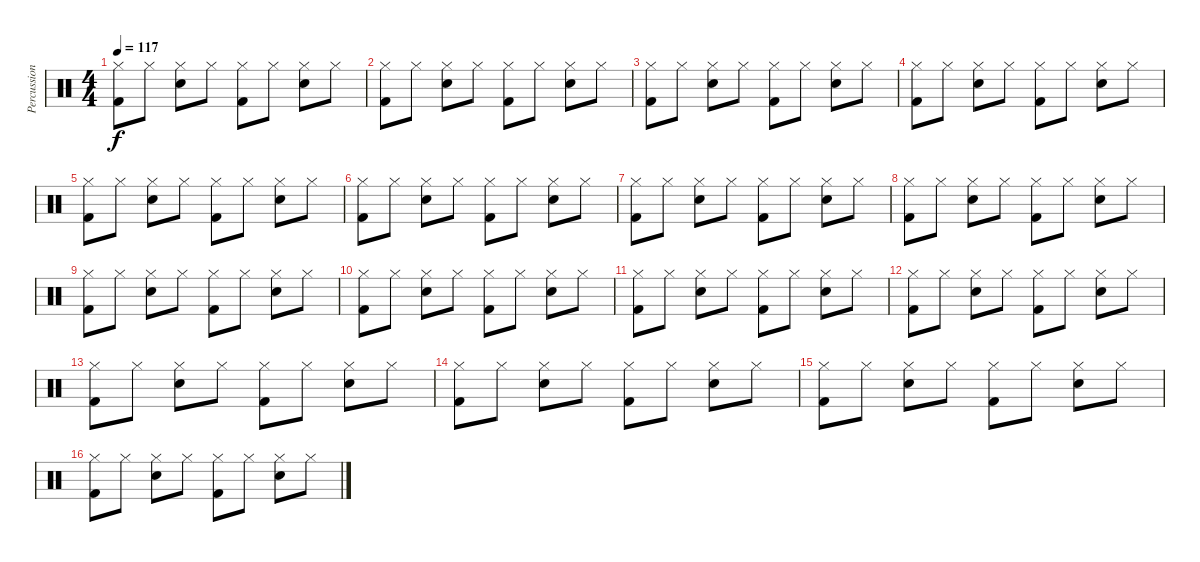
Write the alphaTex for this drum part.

\track ("Percussions" "Percussion") {instrument percussion}
\staff {score}
\articulation defaults
\ts (4 4)
\tempo 117
\clef neutral
\ks c
("Hi-Hat (closed)" "Kick (hit) 2").8{dy f} "Hi-Hat (closed)".8 ("Hi-Hat (closed)" "Electric Snare (hit)").8 "Hi-Hat (closed)".8 ("Hi-Hat (closed)" "Kick (hit) 2").8 "Hi-Hat (closed)".8 ("Hi-Hat (closed)" "Electric Snare (hit)").8 "Hi-Hat (closed)".8 |
("Hi-Hat (closed)" "Kick (hit) 2").8 "Hi-Hat (closed)".8 ("Hi-Hat (closed)" "Electric Snare (hit)").8 "Hi-Hat (closed)".8 ("Hi-Hat (closed)" "Kick (hit) 2").8 "Hi-Hat (closed)".8 ("Hi-Hat (closed)" "Electric Snare (hit)").8 "Hi-Hat (closed)".8 |
("Hi-Hat (closed)" "Kick (hit) 2").8 "Hi-Hat (closed)".8 ("Hi-Hat (closed)" "Electric Snare (hit)").8 "Hi-Hat (closed)".8 ("Hi-Hat (closed)" "Kick (hit) 2").8 "Hi-Hat (closed)".8 ("Hi-Hat (closed)" "Electric Snare (hit)").8 "Hi-Hat (closed)".8 |
("Hi-Hat (closed)" "Kick (hit) 2").8 "Hi-Hat (closed)".8 ("Hi-Hat (closed)" "Electric Snare (hit)").8 "Hi-Hat (closed)".8 ("Hi-Hat (closed)" "Kick (hit) 2").8 "Hi-Hat (closed)".8 ("Hi-Hat (closed)" "Electric Snare (hit)").8 "Hi-Hat (closed)".8 |
("Hi-Hat (closed)" "Kick (hit) 2").8 "Hi-Hat (closed)".8 ("Hi-Hat (closed)" "Electric Snare (hit)").8 "Hi-Hat (closed)".8 ("Hi-Hat (closed)" "Kick (hit) 2").8 "Hi-Hat (closed)".8 ("Hi-Hat (closed)" "Electric Snare (hit)").8 "Hi-Hat (closed)".8 |
("Hi-Hat (closed)" "Kick (hit) 2").8 "Hi-Hat (closed)".8 ("Hi-Hat (closed)" "Electric Snare (hit)").8 "Hi-Hat (closed)".8 ("Hi-Hat (closed)" "Kick (hit) 2").8 "Hi-Hat (closed)".8 ("Hi-Hat (closed)" "Electric Snare (hit)").8 "Hi-Hat (closed)".8 |
("Hi-Hat (closed)" "Kick (hit) 2").8 "Hi-Hat (closed)".8 ("Hi-Hat (closed)" "Electric Snare (hit)").8 "Hi-Hat (closed)".8 ("Hi-Hat (closed)" "Kick (hit) 2").8 "Hi-Hat (closed)".8 ("Hi-Hat (closed)" "Electric Snare (hit)").8 "Hi-Hat (closed)".8 |
("Hi-Hat (closed)" "Kick (hit) 2").8 "Hi-Hat (closed)".8 ("Hi-Hat (closed)" "Electric Snare (hit)").8 "Hi-Hat (closed)".8 ("Hi-Hat (closed)" "Kick (hit) 2").8 "Hi-Hat (closed)".8 ("Hi-Hat (closed)" "Electric Snare (hit)").8 "Hi-Hat (closed)".8 |
("Hi-Hat (closed)" "Kick (hit) 2").8 "Hi-Hat (closed)".8 ("Hi-Hat (closed)" "Electric Snare (hit)").8 "Hi-Hat (closed)".8 ("Hi-Hat (closed)" "Kick (hit) 2").8 "Hi-Hat (closed)".8 ("Hi-Hat (closed)" "Electric Snare (hit)").8 "Hi-Hat (closed)".8 |
("Hi-Hat (closed)" "Kick (hit) 2").8 "Hi-Hat (closed)".8 ("Hi-Hat (closed)" "Electric Snare (hit)").8 "Hi-Hat (closed)".8 ("Hi-Hat (closed)" "Kick (hit) 2").8 "Hi-Hat (closed)".8 ("Hi-Hat (closed)" "Electric Snare (hit)").8 "Hi-Hat (closed)".8 |
("Hi-Hat (closed)" "Kick (hit) 2").8 "Hi-Hat (closed)".8 ("Hi-Hat (closed)" "Electric Snare (hit)").8 "Hi-Hat (closed)".8 ("Hi-Hat (closed)" "Kick (hit) 2").8 "Hi-Hat (closed)".8 ("Hi-Hat (closed)" "Electric Snare (hit)").8 "Hi-Hat (closed)".8 |
("Hi-Hat (closed)" "Kick (hit) 2").8 "Hi-Hat (closed)".8 ("Hi-Hat (closed)" "Electric Snare (hit)").8 "Hi-Hat (closed)".8 ("Hi-Hat (closed)" "Kick (hit) 2").8 "Hi-Hat (closed)".8 ("Hi-Hat (closed)" "Electric Snare (hit)").8 "Hi-Hat (closed)".8 |
("Hi-Hat (closed)" "Kick (hit) 2").8 "Hi-Hat (closed)".8 ("Hi-Hat (closed)" "Electric Snare (hit)").8 "Hi-Hat (closed)".8 ("Hi-Hat (closed)" "Kick (hit) 2").8 "Hi-Hat (closed)".8 ("Hi-Hat (closed)" "Electric Snare (hit)").8 "Hi-Hat (closed)".8 |
("Hi-Hat (closed)" "Kick (hit) 2").8 "Hi-Hat (closed)".8 ("Hi-Hat (closed)" "Electric Snare (hit)").8 "Hi-Hat (closed)".8 ("Hi-Hat (closed)" "Kick (hit) 2").8 "Hi-Hat (closed)".8 ("Hi-Hat (closed)" "Electric Snare (hit)").8 "Hi-Hat (closed)".8 |
("Hi-Hat (closed)" "Kick (hit) 2").8 "Hi-Hat (closed)".8 ("Hi-Hat (closed)" "Electric Snare (hit)").8 "Hi-Hat (closed)".8 ("Hi-Hat (closed)" "Kick (hit) 2").8 "Hi-Hat (closed)".8 ("Hi-Hat (closed)" "Electric Snare (hit)").8 "Hi-Hat (closed)".8 |
("Hi-Hat (closed)" "Kick (hit) 2").8 "Hi-Hat (closed)".8 ("Hi-Hat (closed)" "Electric Snare (hit)").8 "Hi-Hat (closed)".8 ("Hi-Hat (closed)" "Kick (hit) 2").8 "Hi-Hat (closed)".8 ("Hi-Hat (closed)" "Electric Snare (hit)").8 "Hi-Hat (closed)".8
